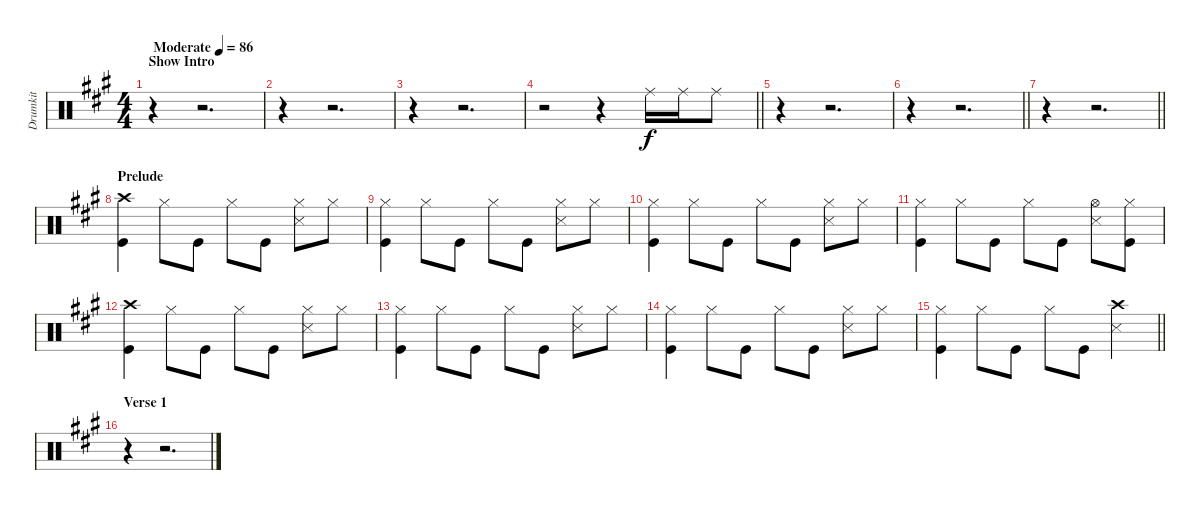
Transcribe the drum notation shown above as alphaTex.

\track ("Drumkit" "Drumkit") {instrument percussion}
\staff {score}
\articulation defaults
\ts (4 4)
\section ("" "Show Intro")
\tempo (86 "Moderate")
\clef neutral
\ks a
r.4{dy f} r.2{d} |
r.4 r.2{d} |
r.4 r.2{d} |
\barLineRight lightlight
r.2 r.4 "Ride (middle)".16 "Ride (middle)".16 "Ride (middle)".8 |
\section ("" "")
r.4 r.2{d} |
\barLineRight lightlight
r.4 r.2{d} |
\section ("" "")
\barLineRight lightlight
r.4 r.2{d} |
\section ("" "Prelude")
("Kick (hit)" "Crash high (hit)").4 "Hi-Hat (closed)".8 "Kick (hit)".8 "Hi-Hat (closed)".8 "Kick (hit)".8 ("Hi-Hat (closed)" "Snare (side stick) 3").8 "Hi-Hat (closed)".8 |
("Kick (hit)" "Hi-Hat (closed)").4 "Hi-Hat (closed)".8 "Kick (hit)".8 "Hi-Hat (closed)".8 "Kick (hit)".8 ("Hi-Hat (closed)" "Snare (side stick) 3").8 "Hi-Hat (closed)".8 |
("Kick (hit)" "Hi-Hat (closed)").4 "Hi-Hat (closed)".8 "Kick (hit)".8 "Hi-Hat (closed)".8 "Kick (hit)".8 ("Hi-Hat (closed)" "Snare (side stick) 3").8 "Hi-Hat (closed)".8 |
("Kick (hit)" "Hi-Hat (closed)").4 "Hi-Hat (closed)".8 "Kick (hit)".8 "Hi-Hat (closed)".8 "Kick (hit)".8 ("Snare (side stick) 3" "Hi-Hat (open)").8 ("Hi-Hat (closed)" "Kick (hit)").8 |
("Kick (hit)" "Crash high (hit)").4 "Hi-Hat (closed)".8 "Kick (hit)".8 "Hi-Hat (closed)".8 "Kick (hit)".8 ("Hi-Hat (closed)" "Snare (side stick) 3").8 "Hi-Hat (closed)".8 |
("Kick (hit)" "Hi-Hat (closed)").4 "Hi-Hat (closed)".8 "Kick (hit)".8 "Hi-Hat (closed)".8 "Kick (hit)".8 ("Hi-Hat (closed)" "Snare (side stick) 3").8 "Hi-Hat (closed)".8 |
("Kick (hit)" "Hi-Hat (closed)").4 "Hi-Hat (closed)".8 "Kick (hit)".8 "Hi-Hat (closed)".8 "Kick (hit)".8 ("Hi-Hat (closed)" "Snare (side stick) 3").8 "Hi-Hat (closed)".8 |
\barLineRight lightlight
("Kick (hit)" "Hi-Hat (closed)").4 "Hi-Hat (closed)".8 "Kick (hit)".8 "Hi-Hat (closed)".8 "Kick (hit)".8 ("Crash high (hit)" "Snare (side stick) 3").4 |
\section ("" "Verse 1")
r.4 r.2{d}
